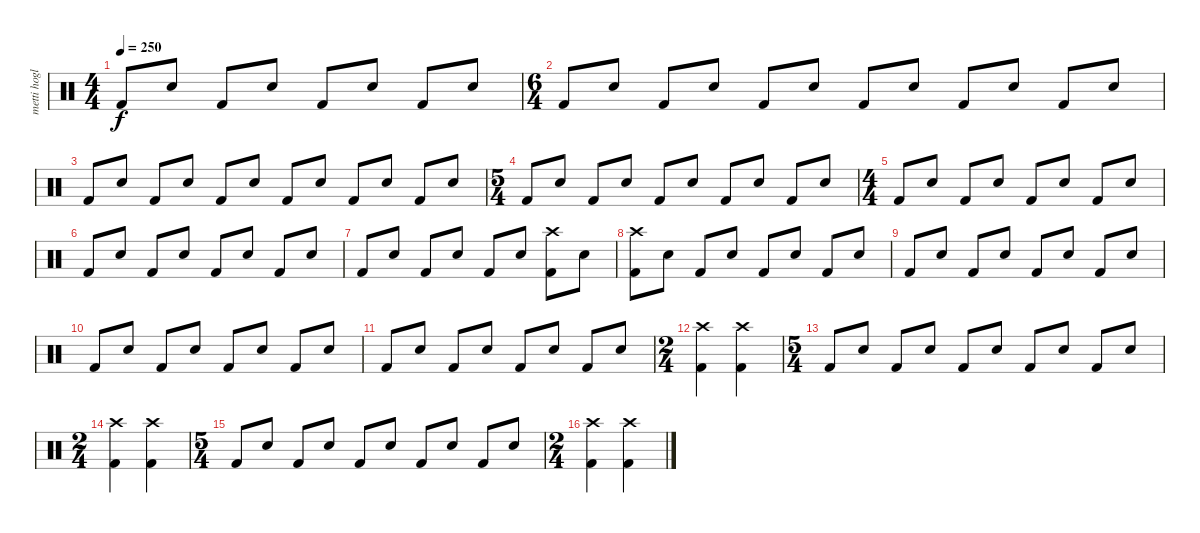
\track ("metti hoglan" "metti hogl") {instrument percussion}
\staff {score}
\articulation defaults
\ts (4 4)
\tempo 250
\clef neutral
\ks c "Kick (hit) 2".8{dy f} "Snare (hit) 2".8 "Kick (hit) 2".8 "Snare (hit) 2".8 "Kick (hit) 2".8 "Snare (hit) 2".8 "Kick (hit) 2".8 "Snare (hit) 2".8
|
\ts (6 4)
"Kick (hit) 2".8 "Snare (hit) 2".8 "Kick (hit) 2".8 "Snare (hit) 2".8 "Kick (hit) 2".8 "Snare (hit) 2".8 "Kick (hit) 2".8 "Snare (hit) 2".8 "Kick (hit) 2".8 "Snare (hit) 2".8 "Kick (hit) 2".8 "Snare (hit) 2".8 |
"Kick (hit) 2".8 "Snare (hit) 2".8 "Kick (hit) 2".8 "Snare (hit) 2".8 "Kick (hit) 2".8 "Snare (hit) 2".8 "Kick (hit) 2".8 "Snare (hit) 2".8 "Kick (hit) 2".8 "Snare (hit) 2".8 "Kick (hit) 2".8 "Snare (hit) 2".8 |
\ts (5 4)
"Kick (hit) 2".8 "Snare (hit) 2".8 "Kick (hit) 2".8 "Snare (hit) 2".8 "Kick (hit) 2".8 "Snare (hit) 2".8 "Kick (hit) 2".8 "Snare (hit) 2".8 "Kick (hit) 2".8 "Snare (hit) 2".8 |
\ts (4 4)
"Kick (hit) 2".8 "Snare (hit) 2".8 "Kick (hit) 2".8 "Snare (hit) 2".8 "Kick (hit) 2".8 "Snare (hit) 2".8 "Kick (hit) 2".8 "Snare (hit) 2".8 |
"Kick (hit) 2".8 "Snare (hit) 2".8 "Kick (hit) 2".8 "Snare (hit) 2".8 "Kick (hit) 2".8 "Snare (hit) 2".8 "Kick (hit) 2".8 "Snare (hit) 2".8 |
"Kick (hit) 2".8 "Snare (hit) 2".8 "Kick (hit) 2".8 "Snare (hit) 2".8 "Kick (hit) 2".8 "Snare (hit) 2".8 ("Crash high (hit)" "Kick (hit) 2").8 "Snare (hit) 2".8 |
("Crash high (hit)" "Kick (hit) 2").8 "Snare (hit) 2".8 "Kick (hit) 2".8 "Snare (hit) 2".8 "Kick (hit) 2".8 "Snare (hit) 2".8 "Kick (hit) 2".8 "Snare (hit) 2".8 |
"Kick (hit) 2".8 "Snare (hit) 2".8 "Kick (hit) 2".8 "Snare (hit) 2".8 "Kick (hit) 2".8 "Snare (hit) 2".8 "Kick (hit) 2".8 "Snare (hit) 2".8 |
"Kick (hit) 2".8 "Snare (hit) 2".8 "Kick (hit) 2".8 "Snare (hit) 2".8 "Kick (hit) 2".8 "Snare (hit) 2".8 "Kick (hit) 2".8 "Snare (hit) 2".8 |
"Kick (hit) 2".8 "Snare (hit) 2".8 "Kick (hit) 2".8 "Snare (hit) 2".8 "Kick (hit) 2".8 "Snare (hit) 2".8 "Kick (hit) 2".8 "Snare (hit) 2".8 |
\ts (2 4)
("Crash high (hit)" "Kick (hit) 2").4 ("Crash high (hit)" "Kick (hit) 2").4 |
\ts (5 4)
"Kick (hit) 2".8 "Snare (hit) 2".8 "Kick (hit) 2".8 "Snare (hit) 2".8 "Kick (hit) 2".8 "Snare (hit) 2".8 "Kick (hit) 2".8 "Snare (hit) 2".8 "Kick (hit) 2".8 "Snare (hit) 2".8 |
\ts (2 4)
("Crash high (hit)" "Kick (hit) 2").4 ("Crash high (hit)" "Kick (hit) 2").4 |
\ts (5 4)
"Kick (hit) 2".8 "Snare (hit) 2".8 "Kick (hit) 2".8 "Snare (hit) 2".8 "Kick (hit) 2".8 "Snare (hit) 2".8 "Kick (hit) 2".8 "Snare (hit) 2".8 "Kick (hit) 2".8 "Snare (hit) 2".8 |
\ts (2 4)
("Crash high (hit)" "Kick (hit) 2").4 ("Crash high (hit)" "Kick (hit) 2").4
